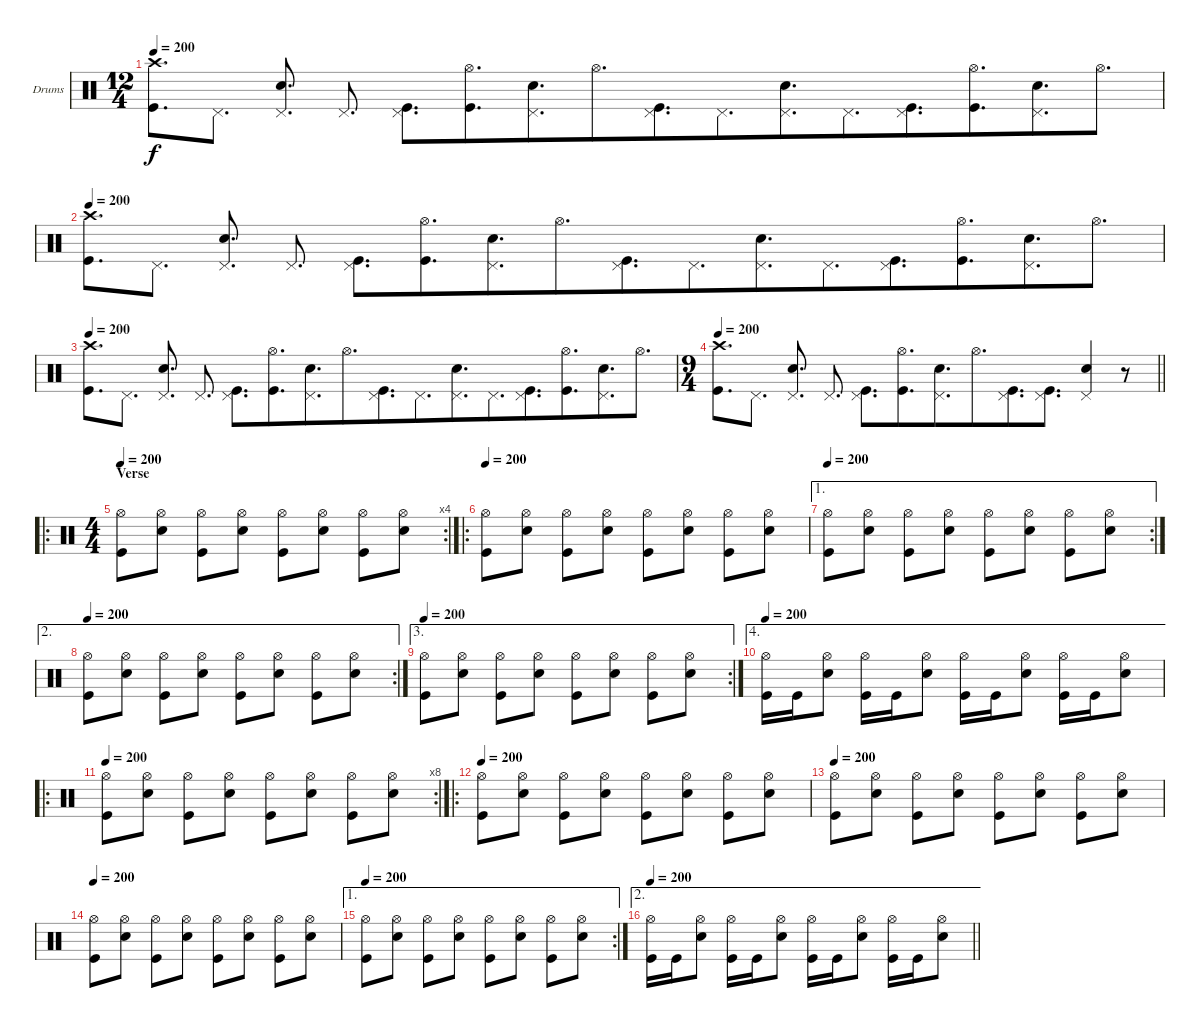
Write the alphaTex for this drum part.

\bracketExtendMode groupsimilarinstruments
\firstSystemTrackNameOrientation horizontal
\otherSystemsTrackNameOrientation horizontal
\track ("Drumkit" "Drums") {instrument percussion}
\staff {score}
\articulation defaults
\ts (12 4)
\beaming (8 2 2 2 18)
\tempo 200
\clef neutral
\ks c
("Crash high (hit)" "Kick (hit)").8{d dy f} "Pedal Hi-Hat (hit)".8{d} ("Pedal Hi-Hat (hit)" "Snare (hit) 2").8{d} "Pedal Hi-Hat (hit)".8{d} ("Pedal Hi-Hat (hit)" "Kick (hit)").8{d} ("Hi-Hat (open)" "Kick (hit)").8{d} ("Pedal Hi-Hat (hit)" "Snare (hit) 2").8{d} "Hi-Hat (open)".8{d} ("Pedal Hi-Hat (hit)" "Kick (hit)").8{d} "Pedal Hi-Hat (hit)".8{d} ("Pedal Hi-Hat (hit)" "Snare (hit) 2").8{d} "Pedal Hi-Hat (hit)".8{d} ("Pedal Hi-Hat (hit)" "Kick (hit)").8{d} ("Hi-Hat (open)" "Kick (hit)").8{d} ("Pedal Hi-Hat (hit)" "Snare (hit) 2").8{d} "Hi-Hat (open)".8{d} |
\tempo 200
("Crash high (hit)" "Kick (hit)").8{d} "Pedal Hi-Hat (hit)".8{d} ("Pedal Hi-Hat (hit)" "Snare (hit) 2").8{d} "Pedal Hi-Hat (hit)".8{d} ("Pedal Hi-Hat (hit)" "Kick (hit)").8{d} ("Hi-Hat (open)" "Kick (hit)").8{d} ("Pedal Hi-Hat (hit)" "Snare (hit) 2").8{d} "Hi-Hat (open)".8{d} ("Pedal Hi-Hat (hit)" "Kick (hit)").8{d} "Pedal Hi-Hat (hit)".8{d} ("Pedal Hi-Hat (hit)" "Snare (hit) 2").8{d} "Pedal Hi-Hat (hit)".8{d} ("Pedal Hi-Hat (hit)" "Kick (hit)").8{d} ("Hi-Hat (open)" "Kick (hit)").8{d} ("Pedal Hi-Hat (hit)" "Snare (hit) 2").8{d} "Hi-Hat (open)".8{d} |
\tempo 200
("Crash high (hit)" "Kick (hit)").8{d} "Pedal Hi-Hat (hit)".8{d} ("Pedal Hi-Hat (hit)" "Snare (hit) 2").8{d} "Pedal Hi-Hat (hit)".8{d} ("Pedal Hi-Hat (hit)" "Kick (hit)").8{d} ("Hi-Hat (open)" "Kick (hit)").8{d} ("Pedal Hi-Hat (hit)" "Snare (hit) 2").8{d} "Hi-Hat (open)".8{d} ("Pedal Hi-Hat (hit)" "Kick (hit)").8{d} "Pedal Hi-Hat (hit)".8{d} ("Pedal Hi-Hat (hit)" "Snare (hit) 2").8{d} "Pedal Hi-Hat (hit)".8{d} ("Pedal Hi-Hat (hit)" "Kick (hit)").8{d} ("Hi-Hat (open)" "Kick (hit)").8{d} ("Pedal Hi-Hat (hit)" "Snare (hit) 2").8{d} "Hi-Hat (open)".8{d} |
\ts (9 4)
\beaming (8 2 2 2 12)
\tempo 200
\barLineRight lightlight
("Crash high (hit)" "Kick (hit)").8{d} "Pedal Hi-Hat (hit)".8{d} ("Pedal Hi-Hat (hit)" "Snare (hit) 2").8{d} "Pedal Hi-Hat (hit)".8{d} ("Pedal Hi-Hat (hit)" "Kick (hit)").8{d} ("Hi-Hat (open)" "Kick (hit)").8{d} ("Pedal Hi-Hat (hit)" "Snare (hit) 2").8{d} "Hi-Hat (open)".8{d} ("Pedal Hi-Hat (hit)" "Kick (hit)").8{d} ("Pedal Hi-Hat (hit)" "Kick (hit)").8{d} ("Pedal Hi-Hat (hit)" "Snare (hit) 2").4 r.8 |
\ro
\rc 4
\ts (4 4)
\beaming (8 2 2 2 2)
\section ("" "Verse")
\tempo 200
("Hi-Hat (open)" "Kick (hit)").8 ("Hi-Hat (open)" "Snare (hit) 2").8 ("Hi-Hat (open)" "Kick (hit)").8 ("Hi-Hat (open)" "Snare (hit) 2").8 ("Hi-Hat (open)" "Kick (hit)").8 ("Hi-Hat (open)" "Snare (hit) 2").8 ("Hi-Hat (open)" "Kick (hit)").8 ("Hi-Hat (open)" "Snare (hit) 2").8 |
\ro
\tempo 200
("Hi-Hat (open)" "Kick (hit)").8 ("Hi-Hat (open)" "Snare (hit) 2").8 ("Hi-Hat (open)" "Kick (hit)").8 ("Hi-Hat (open)" "Snare (hit) 2").8 ("Hi-Hat (open)" "Kick (hit)").8 ("Hi-Hat (open)" "Snare (hit) 2").8 ("Hi-Hat (open)" "Kick (hit)").8 ("Hi-Hat (open)" "Snare (hit) 2").8 |
\ae 1
\rc 2
\tempo 200
("Hi-Hat (open)" "Kick (hit)").8 ("Hi-Hat (open)" "Snare (hit) 2").8 ("Hi-Hat (open)" "Kick (hit)").8 ("Hi-Hat (open)" "Snare (hit) 2").8 ("Hi-Hat (open)" "Kick (hit)").8 ("Hi-Hat (open)" "Snare (hit) 2").8 ("Hi-Hat (open)" "Kick (hit)").8 ("Hi-Hat (open)" "Snare (hit) 2").8 |
\ae 2
\rc 2
\tempo 200
("Hi-Hat (open)" "Kick (hit)").8 ("Hi-Hat (open)" "Snare (hit) 2").8 ("Hi-Hat (open)" "Kick (hit)").8 ("Hi-Hat (open)" "Snare (hit) 2").8 ("Hi-Hat (open)" "Kick (hit)").8 ("Hi-Hat (open)" "Snare (hit) 2").8 ("Hi-Hat (open)" "Kick (hit)").8 ("Hi-Hat (open)" "Snare (hit) 2").8 |
\ae 3
\rc 2
\tempo 200
("Hi-Hat (open)" "Kick (hit)").8 ("Hi-Hat (open)" "Snare (hit) 2").8 ("Hi-Hat (open)" "Kick (hit)").8 ("Hi-Hat (open)" "Snare (hit) 2").8 ("Hi-Hat (open)" "Kick (hit)").8 ("Hi-Hat (open)" "Snare (hit) 2").8 ("Hi-Hat (open)" "Kick (hit)").8 ("Hi-Hat (open)" "Snare (hit) 2").8 |
\ae 4
\tempo 200
("Hi-Hat (open)" "Kick (hit)").16 "Kick (hit)".16 ("Hi-Hat (open)" "Snare (hit) 2").8 ("Hi-Hat (open)" "Kick (hit)").16 "Kick (hit)".16 ("Hi-Hat (open)" "Snare (hit) 2").8 ("Hi-Hat (open)" "Kick (hit)").16 "Kick (hit)".16 ("Hi-Hat (open)" "Snare (hit) 2").8 ("Hi-Hat (open)" "Kick (hit)").16 "Kick (hit)".16 ("Hi-Hat (open)" "Snare (hit) 2").8 |
\ro
\rc 8
\tempo 200
("Hi-Hat (open)" "Kick (hit)").8 ("Hi-Hat (open)" "Snare (hit) 2").8 ("Hi-Hat (open)" "Kick (hit)").8 ("Hi-Hat (open)" "Snare (hit) 2").8 ("Hi-Hat (open)" "Kick (hit)").8 ("Hi-Hat (open)" "Snare (hit) 2").8 ("Hi-Hat (open)" "Kick (hit)").8 ("Hi-Hat (open)" "Snare (hit) 2").8 |
\ro
\tempo 200
("Hi-Hat (open)" "Kick (hit)").8 ("Hi-Hat (open)" "Snare (hit) 2").8 ("Hi-Hat (open)" "Kick (hit)").8 ("Hi-Hat (open)" "Snare (hit) 2").8 ("Hi-Hat (open)" "Kick (hit)").8 ("Hi-Hat (open)" "Snare (hit) 2").8 ("Hi-Hat (open)" "Kick (hit)").8 ("Hi-Hat (open)" "Snare (hit) 2").8 |
\tempo 200
("Hi-Hat (open)" "Kick (hit)").8 ("Hi-Hat (open)" "Snare (hit) 2").8 ("Hi-Hat (open)" "Kick (hit)").8 ("Hi-Hat (open)" "Snare (hit) 2").8 ("Hi-Hat (open)" "Kick (hit)").8 ("Hi-Hat (open)" "Snare (hit) 2").8 ("Hi-Hat (open)" "Kick (hit)").8 ("Hi-Hat (open)" "Snare (hit) 2").8 |
\tempo 200
("Hi-Hat (open)" "Kick (hit)").8 ("Hi-Hat (open)" "Snare (hit) 2").8 ("Hi-Hat (open)" "Kick (hit)").8 ("Hi-Hat (open)" "Snare (hit) 2").8 ("Hi-Hat (open)" "Kick (hit)").8 ("Hi-Hat (open)" "Snare (hit) 2").8 ("Hi-Hat (open)" "Kick (hit)").8 ("Hi-Hat (open)" "Snare (hit) 2").8 |
\ae 1
\rc 2
\tempo 200
("Hi-Hat (open)" "Kick (hit)").8 ("Hi-Hat (open)" "Snare (hit) 2").8 ("Hi-Hat (open)" "Kick (hit)").8 ("Hi-Hat (open)" "Snare (hit) 2").8 ("Hi-Hat (open)" "Kick (hit)").8 ("Hi-Hat (open)" "Snare (hit) 2").8 ("Hi-Hat (open)" "Kick (hit)").8 ("Hi-Hat (open)" "Snare (hit) 2").8 |
\ae 2
\tempo 200
\barLineRight lightlight
("Hi-Hat (open)" "Kick (hit)").16 "Kick (hit)".16 ("Hi-Hat (open)" "Snare (hit) 2").8 ("Hi-Hat (open)" "Kick (hit)").16 "Kick (hit)".16 ("Hi-Hat (open)" "Snare (hit) 2").8 ("Hi-Hat (open)" "Kick (hit)").16 "Kick (hit)".16 ("Hi-Hat (open)" "Snare (hit) 2").8 ("Hi-Hat (open)" "Kick (hit)").16 "Kick (hit)".16 ("Hi-Hat (open)" "Snare (hit) 2").8
